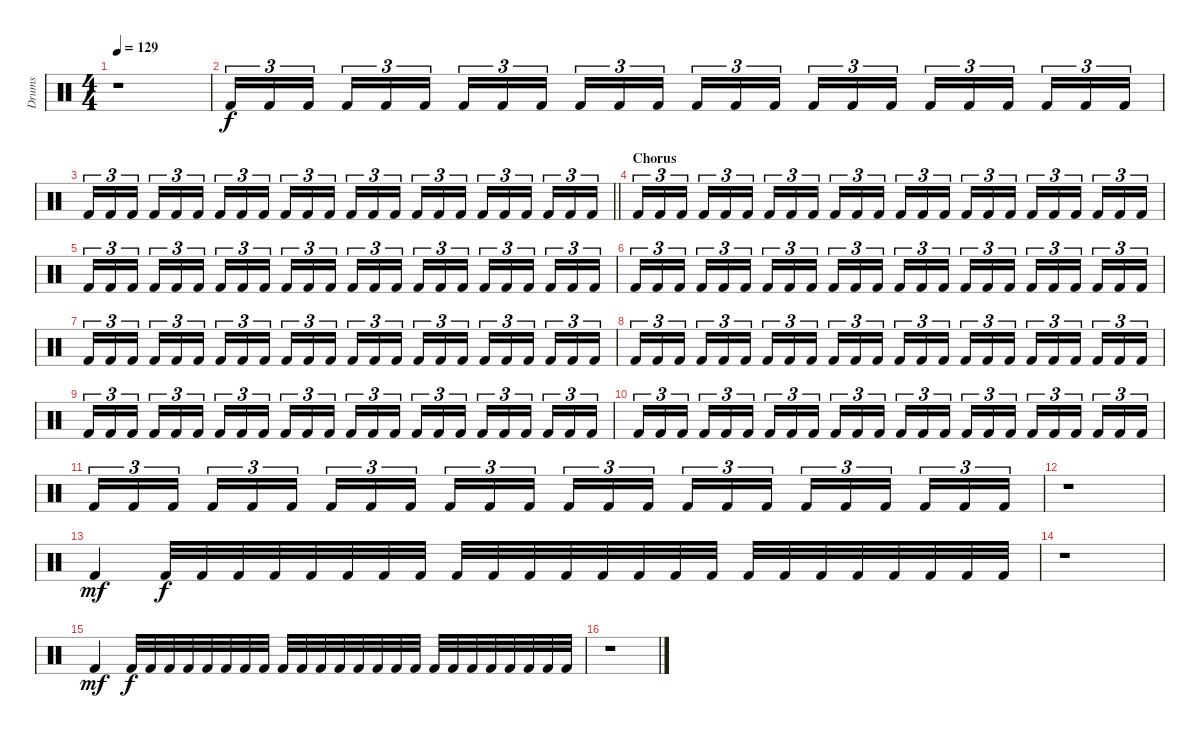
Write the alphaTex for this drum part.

\track ("Drums" "Drums") {instrument percussion}
\staff {score}
\articulation defaults
\ts (4 4)
\tempo 129
\clef neutral
\ks c
r.1{dy f} |
"Kick (hit) 2".16{tu (3 2)} "Kick (hit) 2".16{tu (3 2)} "Kick (hit) 2".16{tu (3 2) beam splitsecondary} "Kick (hit) 2".16{tu (3 2)} "Kick (hit) 2".16{tu (3 2)} "Kick (hit) 2".16{tu (3 2)} "Kick (hit) 2".16{tu (3 2)} "Kick (hit) 2".16{tu (3 2)} "Kick (hit) 2".16{tu (3 2) beam splitsecondary} "Kick (hit) 2".16{tu (3 2)} "Kick (hit) 2".16{tu (3 2)} "Kick (hit) 2".16{tu (3 2)} "Kick (hit) 2".16{tu (3 2)} "Kick (hit) 2".16{tu (3 2)} "Kick (hit) 2".16{tu (3 2) beam splitsecondary} "Kick (hit) 2".16{tu (3 2)} "Kick (hit) 2".16{tu (3 2)} "Kick (hit) 2".16{tu (3 2)} "Kick (hit) 2".16{tu (3 2)} "Kick (hit) 2".16{tu (3 2)} "Kick (hit) 2".16{tu (3 2) beam splitsecondary} "Kick (hit) 2".16{tu (3 2)} "Kick (hit) 2".16{tu (3 2)} "Kick (hit) 2".16{tu (3 2)} |
\barLineRight lightlight "Kick (hit) 2".16{tu (3 2)} "Kick (hit) 2".16{tu (3 2)} "Kick (hit) 2".16{tu (3 2) beam splitsecondary} "Kick (hit) 2".16{tu (3 2)} "Kick (hit) 2".16{tu (3 2)} "Kick (hit) 2".16{tu (3 2)} "Kick (hit) 2".16{tu (3 2)} "Kick (hit) 2".16{tu (3 2)} "Kick (hit) 2".16{tu (3 2) beam splitsecondary} "Kick (hit) 2".16{tu (3 2)} "Kick (hit) 2".16{tu (3 2)} "Kick (hit) 2".16{tu (3 2)} "Kick (hit) 2".16{tu (3 2)} "Kick (hit) 2".16{tu (3 2)} "Kick (hit) 2".16{tu (3 2) beam splitsecondary} "Kick (hit) 2".16{tu (3 2)} "Kick (hit) 2".16{tu (3 2)} "Kick (hit) 2".16{tu (3 2)} "Kick (hit) 2".16{tu (3 2)} "Kick (hit) 2".16{tu (3 2)} "Kick (hit) 2".16{tu (3 2) beam splitsecondary} "Kick (hit) 2".16{tu (3 2)} "Kick (hit) 2".16{tu (3 2)} "Kick (hit) 2".16{tu (3 2)}
|
\section ("" "Chorus")
"Kick (hit) 2".16{tu (3 2)} "Kick (hit) 2".16{tu (3 2)} "Kick (hit) 2".16{tu (3 2) beam splitsecondary} "Kick (hit) 2".16{tu (3 2)} "Kick (hit) 2".16{tu (3 2)} "Kick (hit) 2".16{tu (3 2)} "Kick (hit) 2".16{tu (3 2)} "Kick (hit) 2".16{tu (3 2)} "Kick (hit) 2".16{tu (3 2) beam splitsecondary} "Kick (hit) 2".16{tu (3 2)} "Kick (hit) 2".16{tu (3 2)} "Kick (hit) 2".16{tu (3 2)} "Kick (hit) 2".16{tu (3 2)} "Kick (hit) 2".16{tu (3 2)} "Kick (hit) 2".16{tu (3 2) beam splitsecondary} "Kick (hit) 2".16{tu (3 2)} "Kick (hit) 2".16{tu (3 2)} "Kick (hit) 2".16{tu (3 2)} "Kick (hit) 2".16{tu (3 2)} "Kick (hit) 2".16{tu (3 2)} "Kick (hit) 2".16{tu (3 2) beam splitsecondary} "Kick (hit) 2".16{tu (3 2)} "Kick (hit) 2".16{tu (3 2)} "Kick (hit) 2".16{tu (3 2)} |
"Kick (hit) 2".16{tu (3 2)} "Kick (hit) 2".16{tu (3 2)} "Kick (hit) 2".16{tu (3 2) beam splitsecondary} "Kick (hit) 2".16{tu (3 2)} "Kick (hit) 2".16{tu (3 2)} "Kick (hit) 2".16{tu (3 2)} "Kick (hit) 2".16{tu (3 2)} "Kick (hit) 2".16{tu (3 2)} "Kick (hit) 2".16{tu (3 2) beam splitsecondary} "Kick (hit) 2".16{tu (3 2)} "Kick (hit) 2".16{tu (3 2)} "Kick (hit) 2".16{tu (3 2)} "Kick (hit) 2".16{tu (3 2)} "Kick (hit) 2".16{tu (3 2)} "Kick (hit) 2".16{tu (3 2) beam splitsecondary} "Kick (hit) 2".16{tu (3 2)} "Kick (hit) 2".16{tu (3 2)} "Kick (hit) 2".16{tu (3 2)} "Kick (hit) 2".16{tu (3 2)} "Kick (hit) 2".16{tu (3 2)} "Kick (hit) 2".16{tu (3 2) beam splitsecondary} "Kick (hit) 2".16{tu (3 2)} "Kick (hit) 2".16{tu (3 2)} "Kick (hit) 2".16{tu (3 2)} |
"Kick (hit) 2".16{tu (3 2)} "Kick (hit) 2".16{tu (3 2)} "Kick (hit) 2".16{tu (3 2) beam splitsecondary} "Kick (hit) 2".16{tu (3 2)} "Kick (hit) 2".16{tu (3 2)} "Kick (hit) 2".16{tu (3 2)} "Kick (hit) 2".16{tu (3 2)} "Kick (hit) 2".16{tu (3 2)} "Kick (hit) 2".16{tu (3 2) beam splitsecondary} "Kick (hit) 2".16{tu (3 2)} "Kick (hit) 2".16{tu (3 2)} "Kick (hit) 2".16{tu (3 2)} "Kick (hit) 2".16{tu (3 2)} "Kick (hit) 2".16{tu (3 2)} "Kick (hit) 2".16{tu (3 2) beam splitsecondary} "Kick (hit) 2".16{tu (3 2)} "Kick (hit) 2".16{tu (3 2)} "Kick (hit) 2".16{tu (3 2)} "Kick (hit) 2".16{tu (3 2)} "Kick (hit) 2".16{tu (3 2)} "Kick (hit) 2".16{tu (3 2) beam splitsecondary} "Kick (hit) 2".16{tu (3 2)} "Kick (hit) 2".16{tu (3 2)} "Kick (hit) 2".16{tu (3 2)} |
"Kick (hit) 2".16{tu (3 2)} "Kick (hit) 2".16{tu (3 2)} "Kick (hit) 2".16{tu (3 2) beam splitsecondary} "Kick (hit) 2".16{tu (3 2)} "Kick (hit) 2".16{tu (3 2)} "Kick (hit) 2".16{tu (3 2)} "Kick (hit) 2".16{tu (3 2)} "Kick (hit) 2".16{tu (3 2)} "Kick (hit) 2".16{tu (3 2) beam splitsecondary} "Kick (hit) 2".16{tu (3 2)} "Kick (hit) 2".16{tu (3 2)} "Kick (hit) 2".16{tu (3 2)} "Kick (hit) 2".16{tu (3 2)} "Kick (hit) 2".16{tu (3 2)} "Kick (hit) 2".16{tu (3 2) beam splitsecondary} "Kick (hit) 2".16{tu (3 2)} "Kick (hit) 2".16{tu (3 2)} "Kick (hit) 2".16{tu (3 2)} "Kick (hit) 2".16{tu (3 2)} "Kick (hit) 2".16{tu (3 2)} "Kick (hit) 2".16{tu (3 2) beam splitsecondary} "Kick (hit) 2".16{tu (3 2)} "Kick (hit) 2".16{tu (3 2)} "Kick (hit) 2".16{tu (3 2)} |
"Kick (hit) 2".16{tu (3 2)} "Kick (hit) 2".16{tu (3 2)} "Kick (hit) 2".16{tu (3 2) beam splitsecondary} "Kick (hit) 2".16{tu (3 2)} "Kick (hit) 2".16{tu (3 2)} "Kick (hit) 2".16{tu (3 2)} "Kick (hit) 2".16{tu (3 2)} "Kick (hit) 2".16{tu (3 2)} "Kick (hit) 2".16{tu (3 2) beam splitsecondary} "Kick (hit) 2".16{tu (3 2)} "Kick (hit) 2".16{tu (3 2)} "Kick (hit) 2".16{tu (3 2)} "Kick (hit) 2".16{tu (3 2)} "Kick (hit) 2".16{tu (3 2)} "Kick (hit) 2".16{tu (3 2) beam splitsecondary} "Kick (hit) 2".16{tu (3 2)} "Kick (hit) 2".16{tu (3 2)} "Kick (hit) 2".16{tu (3 2)} "Kick (hit) 2".16{tu (3 2)} "Kick (hit) 2".16{tu (3 2)} "Kick (hit) 2".16{tu (3 2) beam splitsecondary} "Kick (hit) 2".16{tu (3 2)} "Kick (hit) 2".16{tu (3 2)} "Kick (hit) 2".16{tu (3 2)} |
"Kick (hit) 2".16{tu (3 2)} "Kick (hit) 2".16{tu (3 2)} "Kick (hit) 2".16{tu (3 2) beam splitsecondary} "Kick (hit) 2".16{tu (3 2)} "Kick (hit) 2".16{tu (3 2)} "Kick (hit) 2".16{tu (3 2)} "Kick (hit) 2".16{tu (3 2)} "Kick (hit) 2".16{tu (3 2)} "Kick (hit) 2".16{tu (3 2) beam splitsecondary} "Kick (hit) 2".16{tu (3 2)} "Kick (hit) 2".16{tu (3 2)} "Kick (hit) 2".16{tu (3 2)} "Kick (hit) 2".16{tu (3 2)} "Kick (hit) 2".16{tu (3 2)} "Kick (hit) 2".16{tu (3 2) beam splitsecondary} "Kick (hit) 2".16{tu (3 2)} "Kick (hit) 2".16{tu (3 2)} "Kick (hit) 2".16{tu (3 2)} "Kick (hit) 2".16{tu (3 2)} "Kick (hit) 2".16{tu (3 2)} "Kick (hit) 2".16{tu (3 2) beam splitsecondary} "Kick (hit) 2".16{tu (3 2)} "Kick (hit) 2".16{tu (3 2)} "Kick (hit) 2".16{tu (3 2)} |
"Kick (hit) 2".16{tu (3 2)} "Kick (hit) 2".16{tu (3 2)} "Kick (hit) 2".16{tu (3 2) beam splitsecondary} "Kick (hit) 2".16{tu (3 2)} "Kick (hit) 2".16{tu (3 2)} "Kick (hit) 2".16{tu (3 2)} "Kick (hit) 2".16{tu (3 2)} "Kick (hit) 2".16{tu (3 2)} "Kick (hit) 2".16{tu (3 2) beam splitsecondary} "Kick (hit) 2".16{tu (3 2)} "Kick (hit) 2".16{tu (3 2)} "Kick (hit) 2".16{tu (3 2)} "Kick (hit) 2".16{tu (3 2)} "Kick (hit) 2".16{tu (3 2)} "Kick (hit) 2".16{tu (3 2) beam splitsecondary} "Kick (hit) 2".16{tu (3 2)} "Kick (hit) 2".16{tu (3 2)} "Kick (hit) 2".16{tu (3 2)} "Kick (hit) 2".16{tu (3 2)} "Kick (hit) 2".16{tu (3 2)} "Kick (hit) 2".16{tu (3 2) beam splitsecondary} "Kick (hit) 2".16{tu (3 2)} "Kick (hit) 2".16{tu (3 2)} "Kick (hit) 2".16{tu (3 2)} |
"Kick (hit) 2".16{tu (3 2)} "Kick (hit) 2".16{tu (3 2)} "Kick (hit) 2".16{tu (3 2) beam splitsecondary} "Kick (hit) 2".16{tu (3 2)} "Kick (hit) 2".16{tu (3 2)} "Kick (hit) 2".16{tu (3 2)} "Kick (hit) 2".16{tu (3 2)} "Kick (hit) 2".16{tu (3 2)} "Kick (hit) 2".16{tu (3 2) beam splitsecondary} "Kick (hit) 2".16{tu (3 2)} "Kick (hit) 2".16{tu (3 2)} "Kick (hit) 2".16{tu (3 2)} "Kick (hit) 2".16{tu (3 2)} "Kick (hit) 2".16{tu (3 2)} "Kick (hit) 2".16{tu (3 2) beam splitsecondary} "Kick (hit) 2".16{tu (3 2)} "Kick (hit) 2".16{tu (3 2)} "Kick (hit) 2".16{tu (3 2)} "Kick (hit) 2".16{tu (3 2)} "Kick (hit) 2".16{tu (3 2)} "Kick (hit) 2".16{tu (3 2) beam splitsecondary} "Kick (hit) 2".16{tu (3 2)} "Kick (hit) 2".16{tu (3 2)} "Kick (hit) 2".16{tu (3 2)} |
r.1 |
"Kick (hit) 2".4{dy mf} "Kick (hit) 2".32{dy f} "Kick (hit) 2".32 "Kick (hit) 2".32 "Kick (hit) 2".32 "Kick (hit) 2".32 "Kick (hit) 2".32 "Kick (hit) 2".32 "Kick (hit) 2".32 "Kick (hit) 2".32 "Kick (hit) 2".32 "Kick (hit) 2".32 "Kick (hit) 2".32 "Kick (hit) 2".32 "Kick (hit) 2".32 "Kick (hit) 2".32 "Kick (hit) 2".32 "Kick (hit) 2".32 "Kick (hit) 2".32 "Kick (hit) 2".32 "Kick (hit) 2".32 "Kick (hit) 2".32 "Kick (hit) 2".32 "Kick (hit) 2".32 "Kick (hit) 2".32 |
r.1 |
"Kick (hit) 2".4{dy mf} "Kick (hit) 2".32{dy f} "Kick (hit) 2".32 "Kick (hit) 2".32 "Kick (hit) 2".32 "Kick (hit) 2".32 "Kick (hit) 2".32 "Kick (hit) 2".32 "Kick (hit) 2".32 "Kick (hit) 2".32 "Kick (hit) 2".32 "Kick (hit) 2".32 "Kick (hit) 2".32 "Kick (hit) 2".32 "Kick (hit) 2".32 "Kick (hit) 2".32 "Kick (hit) 2".32 "Kick (hit) 2".32 "Kick (hit) 2".32 "Kick (hit) 2".32 "Kick (hit) 2".32 "Kick (hit) 2".32 "Kick (hit) 2".32 "Kick (hit) 2".32 "Kick (hit) 2".32 |
r.1
